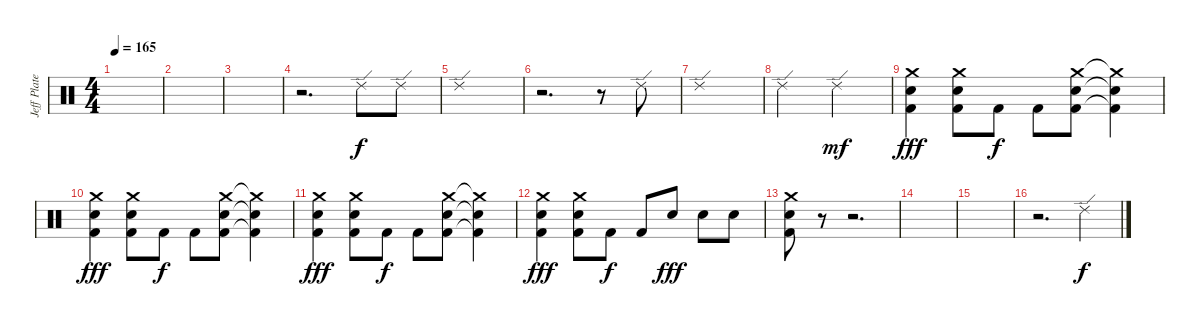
\track ("Jeff Plate" "Jeff Plate") {instrument percussion}
\staff {score}
\articulation defaults
\ts (4 4)
\tempo 165
\clef neutral
\ks c
|
|
|
r.2{d} "Ride (edge) 2".8 "Ride (edge) 2".8 |
"Ride (edge) 2".1 |
r.2{d} r.8 "Ride (edge) 2".8{dy f} |
"Ride (edge) 2".1 |
"Ride (edge) 2".2 "Ride (edge) 2".2{dy mf} |
("Crash medium (hit)" "Electric Snare (hit)" "Kick (hit) 2").4{dy fff} ("Crash medium (hit)" "Electric Snare (hit)" "Kick (hit) 2").8 "Kick (hit) 2".8{dy f} "Kick (hit) 2".8 ("Crash medium (hit)" "Electric Snare (hit)" "Kick (hit) 2").8 ("Crash medium (hit)"{t} "Electric Snare (hit)"{t} "Kick (hit) 2"{t}).4 |
("Crash medium (hit)" "Electric Snare (hit)" "Kick (hit) 2").4{dy fff} ("Crash medium (hit)" "Electric Snare (hit)" "Kick (hit) 2").8 "Kick (hit) 2".8{dy f} "Kick (hit) 2".8 ("Crash medium (hit)" "Electric Snare (hit)" "Kick (hit) 2").8 ("Crash medium (hit)"{t} "Electric Snare (hit)"{t} "Kick (hit) 2"{t}).4 |
("Crash medium (hit)" "Electric Snare (hit)" "Kick (hit) 2").4{dy fff} ("Crash medium (hit)" "Electric Snare (hit)" "Kick (hit) 2").8 "Kick (hit) 2".8{dy f} "Kick (hit) 2".8 ("Crash medium (hit)" "Electric Snare (hit)" "Kick (hit) 2").8 ("Crash medium (hit)"{t} "Electric Snare (hit)"{t} "Kick (hit) 2"{t}).4 |
("Crash medium (hit)" "Electric Snare (hit)" "Kick (hit) 2").4{dy fff} ("Crash medium (hit)" "Electric Snare (hit)" "Kick (hit) 2").8 "Kick (hit) 2".8{dy f} "Kick (hit) 2".8 "Electric Snare (hit)".8{dy fff} "Electric Snare (hit)".8 "Electric Snare (hit)".8 |
("Crash medium (hit)" "Electric Snare (hit)" "Kick (hit) 2").8 r.8 r.2{d} |
|
|
r.2{d} "Ride (edge) 2".4{dy f}
